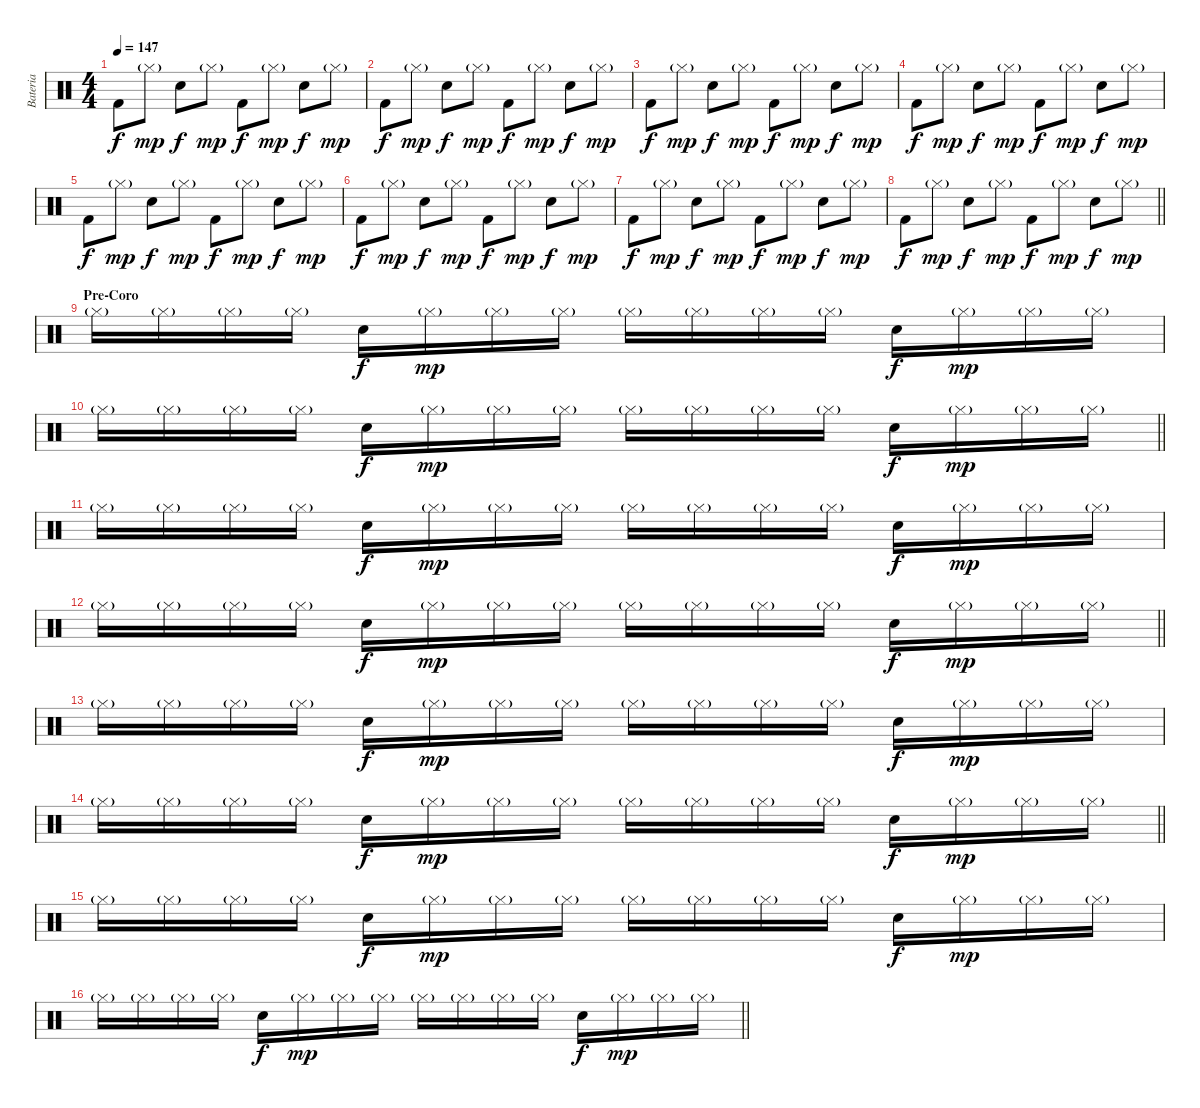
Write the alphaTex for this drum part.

\track ("Bateria" "Bateria") {instrument percussion}
\staff {score}
\articulation defaults
\ts (4 4)
\section ("" "")
\tempo 147
\clef neutral
\ks c "Kick (hit) 2".8{dy f} "Hi-Hat (closed)"{g}.8{dy mp} "Electric Snare (hit)".8{dy f} "Hi-Hat (closed)"{g}.8{dy mp} "Kick (hit) 2".8{dy f} "Hi-Hat (closed)"{g}.8{dy mp} "Electric Snare (hit)".8{dy f} "Hi-Hat (closed)"{g}.8{dy mp}
|
"Kick (hit) 2".8{dy f} "Hi-Hat (closed)"{g}.8{dy mp} "Electric Snare (hit)".8{dy f} "Hi-Hat (closed)"{g}.8{dy mp} "Kick (hit) 2".8{dy f} "Hi-Hat (closed)"{g}.8{dy mp} "Electric Snare (hit)".8{dy f} "Hi-Hat (closed)"{g}.8{dy mp} |
"Kick (hit) 2".8{dy f} "Hi-Hat (closed)"{g}.8{dy mp} "Electric Snare (hit)".8{dy f} "Hi-Hat (closed)"{g}.8{dy mp} "Kick (hit) 2".8{dy f} "Hi-Hat (closed)"{g}.8{dy mp} "Electric Snare (hit)".8{dy f} "Hi-Hat (closed)"{g}.8{dy mp} |
"Kick (hit) 2".8{dy f} "Hi-Hat (closed)"{g}.8{dy mp} "Electric Snare (hit)".8{dy f} "Hi-Hat (closed)"{g}.8{dy mp} "Kick (hit) 2".8{dy f} "Hi-Hat (closed)"{g}.8{dy mp} "Electric Snare (hit)".8{dy f} "Hi-Hat (closed)"{g}.8{dy mp} |
"Kick (hit) 2".8{dy f} "Hi-Hat (closed)"{g}.8{dy mp} "Electric Snare (hit)".8{dy f} "Hi-Hat (closed)"{g}.8{dy mp} "Kick (hit) 2".8{dy f} "Hi-Hat (closed)"{g}.8{dy mp} "Electric Snare (hit)".8{dy f} "Hi-Hat (closed)"{g}.8{dy mp} |
"Kick (hit) 2".8{dy f} "Hi-Hat (closed)"{g}.8{dy mp} "Electric Snare (hit)".8{dy f} "Hi-Hat (closed)"{g}.8{dy mp} "Kick (hit) 2".8{dy f} "Hi-Hat (closed)"{g}.8{dy mp} "Electric Snare (hit)".8{dy f} "Hi-Hat (closed)"{g}.8{dy mp} |
"Kick (hit) 2".8{dy f} "Hi-Hat (closed)"{g}.8{dy mp} "Electric Snare (hit)".8{dy f} "Hi-Hat (closed)"{g}.8{dy mp} "Kick (hit) 2".8{dy f} "Hi-Hat (closed)"{g}.8{dy mp} "Electric Snare (hit)".8{dy f} "Hi-Hat (closed)"{g}.8{dy mp} |
\barLineRight lightlight "Kick (hit) 2".8{dy f} "Hi-Hat (closed)"{g}.8{dy mp} "Electric Snare (hit)".8{dy f} "Hi-Hat (closed)"{g}.8{dy mp} "Kick (hit) 2".8{dy f} "Hi-Hat (closed)"{g}.8{dy mp} "Electric Snare (hit)".8{dy f} "Hi-Hat (closed)"{g}.8{dy mp}
|
\section ("" "Pre-Coro")
"Hi-Hat (closed)"{g}.16 "Hi-Hat (closed)"{g}.16 "Hi-Hat (closed)"{g}.16 "Hi-Hat (closed)"{g}.16 "Electric Snare (hit)".16{dy f} "Hi-Hat (closed)"{g}.16{dy mp} "Hi-Hat (closed)"{g}.16 "Hi-Hat (closed)"{g}.16 "Hi-Hat (closed)"{g}.16 "Hi-Hat (closed)"{g}.16 "Hi-Hat (closed)"{g}.16 "Hi-Hat (closed)"{g}.16 "Electric Snare (hit)".16{dy f} "Hi-Hat (closed)"{g}.16{dy mp} "Hi-Hat (closed)"{g}.16 "Hi-Hat (closed)"{g}.16 |
\barLineRight lightlight "Hi-Hat (closed)"{g}.16 "Hi-Hat (closed)"{g}.16 "Hi-Hat (closed)"{g}.16 "Hi-Hat (closed)"{g}.16 "Electric Snare (hit)".16{dy f} "Hi-Hat (closed)"{g}.16{dy mp} "Hi-Hat (closed)"{g}.16 "Hi-Hat (closed)"{g}.16 "Hi-Hat (closed)"{g}.16 "Hi-Hat (closed)"{g}.16 "Hi-Hat (closed)"{g}.16 "Hi-Hat (closed)"{g}.16 "Electric Snare (hit)".16{dy f} "Hi-Hat (closed)"{g}.16{dy mp} "Hi-Hat (closed)"{g}.16 "Hi-Hat (closed)"{g}.16
|
"Hi-Hat (closed)"{g}.16 "Hi-Hat (closed)"{g}.16 "Hi-Hat (closed)"{g}.16 "Hi-Hat (closed)"{g}.16 "Electric Snare (hit)".16{dy f} "Hi-Hat (closed)"{g}.16{dy mp} "Hi-Hat (closed)"{g}.16 "Hi-Hat (closed)"{g}.16 "Hi-Hat (closed)"{g}.16 "Hi-Hat (closed)"{g}.16 "Hi-Hat (closed)"{g}.16 "Hi-Hat (closed)"{g}.16 "Electric Snare (hit)".16{dy f} "Hi-Hat (closed)"{g}.16{dy mp} "Hi-Hat (closed)"{g}.16 "Hi-Hat (closed)"{g}.16 |
\barLineRight lightlight "Hi-Hat (closed)"{g}.16 "Hi-Hat (closed)"{g}.16 "Hi-Hat (closed)"{g}.16 "Hi-Hat (closed)"{g}.16 "Electric Snare (hit)".16{dy f} "Hi-Hat (closed)"{g}.16{dy mp} "Hi-Hat (closed)"{g}.16 "Hi-Hat (closed)"{g}.16 "Hi-Hat (closed)"{g}.16 "Hi-Hat (closed)"{g}.16 "Hi-Hat (closed)"{g}.16 "Hi-Hat (closed)"{g}.16 "Electric Snare (hit)".16{dy f} "Hi-Hat (closed)"{g}.16{dy mp} "Hi-Hat (closed)"{g}.16 "Hi-Hat (closed)"{g}.16
|
"Hi-Hat (closed)"{g}.16 "Hi-Hat (closed)"{g}.16 "Hi-Hat (closed)"{g}.16 "Hi-Hat (closed)"{g}.16 "Electric Snare (hit)".16{dy f} "Hi-Hat (closed)"{g}.16{dy mp} "Hi-Hat (closed)"{g}.16 "Hi-Hat (closed)"{g}.16 "Hi-Hat (closed)"{g}.16 "Hi-Hat (closed)"{g}.16 "Hi-Hat (closed)"{g}.16 "Hi-Hat (closed)"{g}.16 "Electric Snare (hit)".16{dy f} "Hi-Hat (closed)"{g}.16{dy mp} "Hi-Hat (closed)"{g}.16 "Hi-Hat (closed)"{g}.16 |
\barLineRight lightlight "Hi-Hat (closed)"{g}.16 "Hi-Hat (closed)"{g}.16 "Hi-Hat (closed)"{g}.16 "Hi-Hat (closed)"{g}.16 "Electric Snare (hit)".16{dy f} "Hi-Hat (closed)"{g}.16{dy mp} "Hi-Hat (closed)"{g}.16 "Hi-Hat (closed)"{g}.16 "Hi-Hat (closed)"{g}.16 "Hi-Hat (closed)"{g}.16 "Hi-Hat (closed)"{g}.16 "Hi-Hat (closed)"{g}.16 "Electric Snare (hit)".16{dy f} "Hi-Hat (closed)"{g}.16{dy mp} "Hi-Hat (closed)"{g}.16 "Hi-Hat (closed)"{g}.16
|
"Hi-Hat (closed)"{g}.16 "Hi-Hat (closed)"{g}.16 "Hi-Hat (closed)"{g}.16 "Hi-Hat (closed)"{g}.16 "Electric Snare (hit)".16{dy f} "Hi-Hat (closed)"{g}.16{dy mp} "Hi-Hat (closed)"{g}.16 "Hi-Hat (closed)"{g}.16 "Hi-Hat (closed)"{g}.16 "Hi-Hat (closed)"{g}.16 "Hi-Hat (closed)"{g}.16 "Hi-Hat (closed)"{g}.16 "Electric Snare (hit)".16{dy f} "Hi-Hat (closed)"{g}.16{dy mp} "Hi-Hat (closed)"{g}.16 "Hi-Hat (closed)"{g}.16 |
\barLineRight lightlight "Hi-Hat (closed)"{g}.16 "Hi-Hat (closed)"{g}.16 "Hi-Hat (closed)"{g}.16 "Hi-Hat (closed)"{g}.16 "Electric Snare (hit)".16{dy f} "Hi-Hat (closed)"{g}.16{dy mp} "Hi-Hat (closed)"{g}.16 "Hi-Hat (closed)"{g}.16 "Hi-Hat (closed)"{g}.16 "Hi-Hat (closed)"{g}.16 "Hi-Hat (closed)"{g}.16 "Hi-Hat (closed)"{g}.16 "Electric Snare (hit)".16{dy f} "Hi-Hat (closed)"{g}.16{dy mp} "Hi-Hat (closed)"{g}.16 "Hi-Hat (closed)"{g}.16
